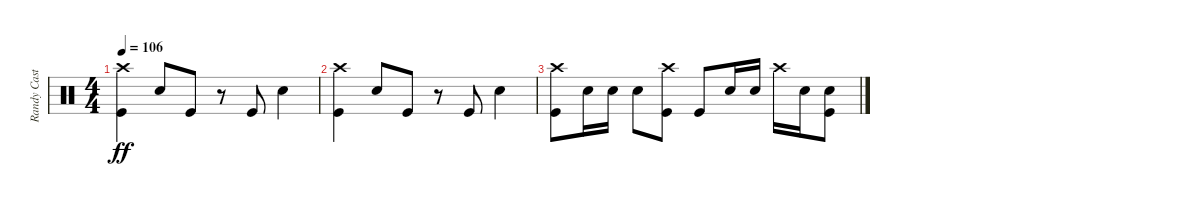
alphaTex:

\track ("Randy Castillo" "Randy Cast") {instrument percussion}
\staff {score}
\articulation defaults
\ts (4 4)
\tempo 106
\clef neutral
\ks c
("Crash high (hit)" "Kick (hit)").4{dy ff} "Snare (hit) 2".8 "Kick (hit)".8 r.8 "Kick (hit)".8 "Snare (hit) 2".4 |
("Crash high (hit)" "Kick (hit)").4 "Snare (hit) 2".8 "Kick (hit)".8 r.8 "Kick (hit)".8 "Snare (hit) 2".4 |
("Crash high (hit)" "Kick (hit)").8 "Snare (hit) 2".16 "Snare (hit) 2".16 "Snare (hit) 2".8 ("Crash high (hit)" "Kick (hit)").8 "Kick (hit)".8 "Snare (hit) 2".16 "Snare (hit) 2".16 "Crash high (hit)".16 "Snare (hit) 2".16 ("Snare (hit) 2" "Kick (hit)").8
